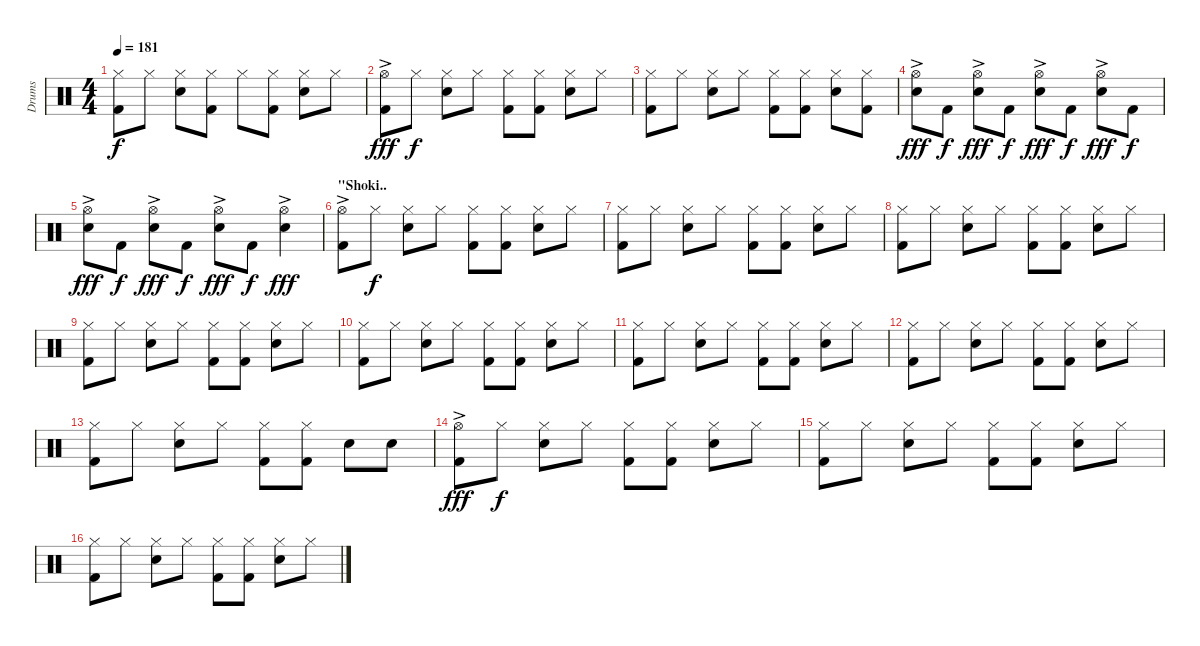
\track ("Drums" "Drums") {instrument percussion}
\staff {score}
\articulation defaults
\ts (4 4)
\tempo 181
\clef neutral
\ks c
("Hi-Hat (closed)" "Kick (hit) 2").8{dy f} "Hi-Hat (closed)".8 ("Hi-Hat (closed)" "Snare (hit) 2").8 ("Hi-Hat (closed)" "Kick (hit) 2").8 "Hi-Hat (closed)".8 ("Hi-Hat (closed)" "Kick (hit) 2").8 ("Hi-Hat (closed)" "Snare (hit) 2").8 "Hi-Hat (closed)".8 |
("Hi-Hat (open)"{ac} "Kick (hit) 2").8{dy fff} "Hi-Hat (closed)".8{dy f} ("Hi-Hat (closed)" "Snare (hit) 2").8 "Hi-Hat (closed)".8 ("Hi-Hat (closed)" "Kick (hit) 2").8 ("Hi-Hat (closed)" "Kick (hit) 2").8 ("Hi-Hat (closed)" "Snare (hit) 2").8 "Hi-Hat (closed)".8 |
("Hi-Hat (closed)" "Kick (hit) 2").8 "Hi-Hat (closed)".8 ("Hi-Hat (closed)" "Snare (hit) 2").8 "Hi-Hat (closed)".8 ("Hi-Hat (closed)" "Kick (hit) 2").8 ("Hi-Hat (closed)" "Kick (hit) 2").8 ("Hi-Hat (closed)" "Snare (hit) 2").8 ("Hi-Hat (closed)" "Kick (hit) 2").8 |
("Hi-Hat (open)"{ac} "Snare (hit) 2").8{dy fff} "Kick (hit) 2".8{dy f} ("Hi-Hat (open)"{ac} "Snare (hit) 2").8{dy fff} "Kick (hit) 2".8{dy f} ("Hi-Hat (open)"{ac} "Snare (hit) 2").8{dy fff} "Kick (hit) 2".8{dy f} ("Hi-Hat (open)"{ac} "Snare (hit) 2").8{dy fff} "Kick (hit) 2".8{dy f} |
("Hi-Hat (open)"{ac} "Snare (hit) 2").8{dy fff} "Kick (hit) 2".8{dy f} ("Hi-Hat (open)"{ac} "Snare (hit) 2").8{dy fff} "Kick (hit) 2".8{dy f} ("Hi-Hat (open)"{ac} "Snare (hit) 2").8{dy fff} "Kick (hit) 2".8{dy f} ("Hi-Hat (open)"{ac} "Snare (hit) 2").4{dy fff} |
\section ("" "\"Shoki..")
("Hi-Hat (open)"{ac} "Kick (hit) 2").8 "Hi-Hat (closed)".8{dy f} ("Hi-Hat (closed)" "Snare (hit) 2").8 "Hi-Hat (closed)".8 ("Hi-Hat (closed)" "Kick (hit) 2").8 ("Hi-Hat (closed)" "Kick (hit) 2").8 ("Hi-Hat (closed)" "Snare (hit) 2").8 "Hi-Hat (closed)".8 |
("Hi-Hat (closed)" "Kick (hit) 2").8 "Hi-Hat (closed)".8 ("Hi-Hat (closed)" "Snare (hit) 2").8 "Hi-Hat (closed)".8 ("Hi-Hat (closed)" "Kick (hit) 2").8 ("Hi-Hat (closed)" "Kick (hit) 2").8 ("Hi-Hat (closed)" "Snare (hit) 2").8 "Hi-Hat (closed)".8 |
("Hi-Hat (closed)" "Kick (hit) 2").8 "Hi-Hat (closed)".8 ("Hi-Hat (closed)" "Snare (hit) 2").8 "Hi-Hat (closed)".8 ("Hi-Hat (closed)" "Kick (hit) 2").8 ("Hi-Hat (closed)" "Kick (hit) 2").8 ("Hi-Hat (closed)" "Snare (hit) 2").8 "Hi-Hat (closed)".8 |
("Hi-Hat (closed)" "Kick (hit) 2").8 "Hi-Hat (closed)".8 ("Hi-Hat (closed)" "Snare (hit) 2").8 "Hi-Hat (closed)".8 ("Hi-Hat (closed)" "Kick (hit) 2").8 ("Hi-Hat (closed)" "Kick (hit) 2").8 ("Hi-Hat (closed)" "Snare (hit) 2").8 "Hi-Hat (closed)".8 |
("Hi-Hat (closed)" "Kick (hit) 2").8 "Hi-Hat (closed)".8 ("Hi-Hat (closed)" "Snare (hit) 2").8 "Hi-Hat (closed)".8 ("Hi-Hat (closed)" "Kick (hit) 2").8 ("Hi-Hat (closed)" "Kick (hit) 2").8 ("Hi-Hat (closed)" "Snare (hit) 2").8 "Hi-Hat (closed)".8 |
("Hi-Hat (closed)" "Kick (hit) 2").8 "Hi-Hat (closed)".8 ("Hi-Hat (closed)" "Snare (hit) 2").8 "Hi-Hat (closed)".8 ("Hi-Hat (closed)" "Kick (hit) 2").8 ("Hi-Hat (closed)" "Kick (hit) 2").8 ("Hi-Hat (closed)" "Snare (hit) 2").8 "Hi-Hat (closed)".8 |
("Hi-Hat (closed)" "Kick (hit) 2").8 "Hi-Hat (closed)".8 ("Hi-Hat (closed)" "Snare (hit) 2").8 "Hi-Hat (closed)".8 ("Hi-Hat (closed)" "Kick (hit) 2").8 ("Hi-Hat (closed)" "Kick (hit) 2").8 ("Hi-Hat (closed)" "Snare (hit) 2").8 "Hi-Hat (closed)".8 |
("Hi-Hat (closed)" "Kick (hit) 2").8 "Hi-Hat (closed)".8 ("Hi-Hat (closed)" "Snare (hit) 2").8 "Hi-Hat (closed)".8 ("Hi-Hat (closed)" "Kick (hit) 2").8 ("Hi-Hat (closed)" "Kick (hit) 2").8 "Snare (hit) 2".8 "Snare (hit) 2".8 |
("Hi-Hat (open)"{ac} "Kick (hit) 2").8{dy fff} "Hi-Hat (closed)".8{dy f} ("Hi-Hat (closed)" "Snare (hit) 2").8 "Hi-Hat (closed)".8 ("Hi-Hat (closed)" "Kick (hit) 2").8 ("Hi-Hat (closed)" "Kick (hit) 2").8 ("Hi-Hat (closed)" "Snare (hit) 2").8 "Hi-Hat (closed)".8 |
("Hi-Hat (closed)" "Kick (hit) 2").8 "Hi-Hat (closed)".8 ("Hi-Hat (closed)" "Snare (hit) 2").8 "Hi-Hat (closed)".8 ("Hi-Hat (closed)" "Kick (hit) 2").8 ("Hi-Hat (closed)" "Kick (hit) 2").8 ("Hi-Hat (closed)" "Snare (hit) 2").8 "Hi-Hat (closed)".8 |
("Hi-Hat (closed)" "Kick (hit) 2").8 "Hi-Hat (closed)".8 ("Hi-Hat (closed)" "Snare (hit) 2").8 "Hi-Hat (closed)".8 ("Hi-Hat (closed)" "Kick (hit) 2").8 ("Hi-Hat (closed)" "Kick (hit) 2").8 ("Hi-Hat (closed)" "Snare (hit) 2").8 "Hi-Hat (closed)".8
